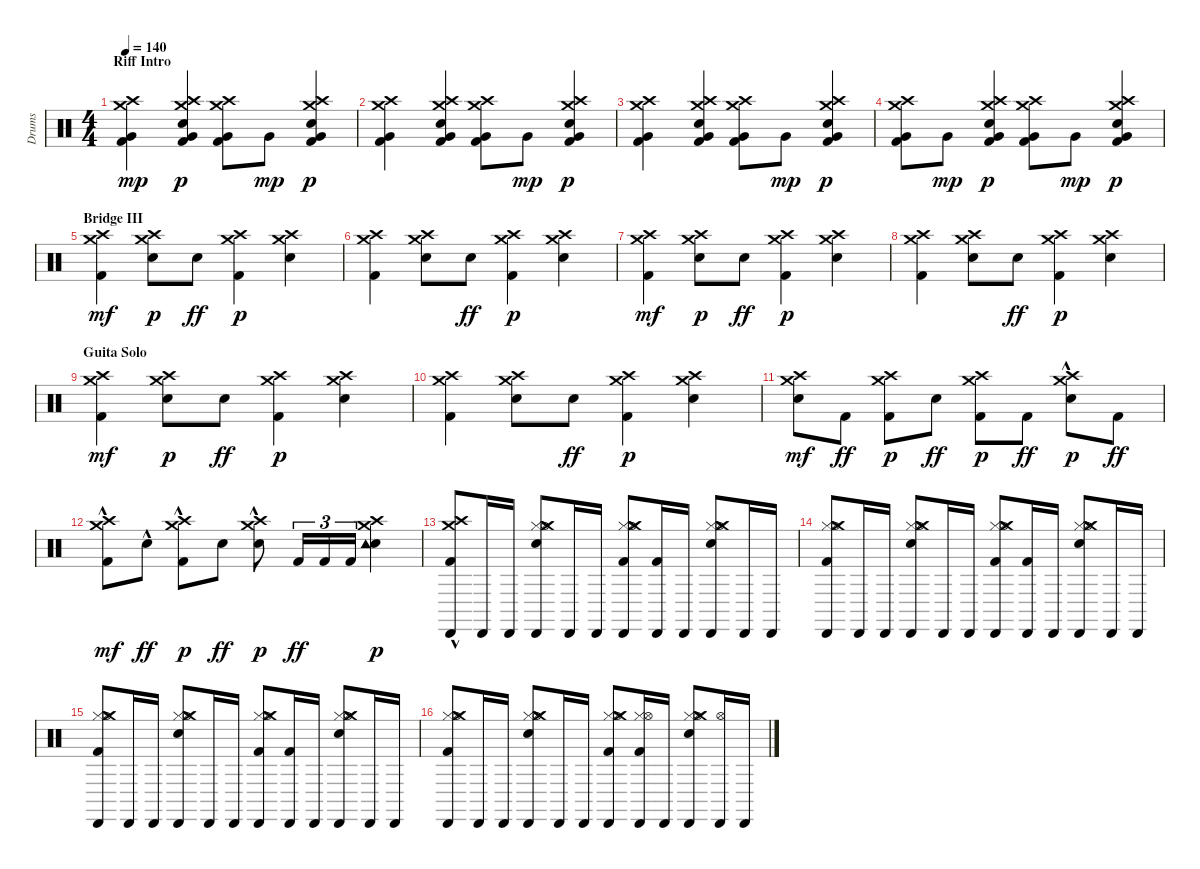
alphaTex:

\track ("Drums" "Drums") {instrument percussion}
\staff {score}
\articulation defaults
\ts (4 4)
\section ("" "Riff Intro")
\tempo 140
\clef neutral
\ks c
("Kick (hit) 2" "Very Low Tom (hit)" "Crash high (hit)" "Crash medium (hit)").4{dy mp} ("Kick (hit) 2" "Snare (hit) 2" "Very Low Tom (hit)" "Crash high (hit)" "Crash medium (hit)").4{dy p} ("Kick (hit) 2" "Very Low Tom (hit)" "Crash high (hit)" "Crash medium (hit)").8 "Very Low Tom (hit)".8{dy mp} ("Kick (hit) 2" "Snare (hit) 2" "Very Low Tom (hit)" "Crash high (hit)" "Crash medium (hit)").4{dy p} |
("Kick (hit) 2" "Very Low Tom (hit)" "Crash high (hit)" "Crash medium (hit)").4 ("Kick (hit) 2" "Snare (hit) 2" "Very Low Tom (hit)" "Crash high (hit)" "Crash medium (hit)").4 ("Kick (hit) 2" "Very Low Tom (hit)" "Crash high (hit)" "Crash medium (hit)").8 "Very Low Tom (hit)".8{dy mp} ("Kick (hit) 2" "Snare (hit) 2" "Very Low Tom (hit)" "Crash high (hit)" "Crash medium (hit)").4{dy p} |
("Kick (hit) 2" "Very Low Tom (hit)" "Crash high (hit)" "Crash medium (hit)").4 ("Kick (hit) 2" "Snare (hit) 2" "Very Low Tom (hit)" "Crash high (hit)" "Crash medium (hit)").4 ("Kick (hit) 2" "Very Low Tom (hit)" "Crash high (hit)" "Crash medium (hit)").8 "Very Low Tom (hit)".8{dy mp} ("Kick (hit) 2" "Snare (hit) 2" "Very Low Tom (hit)" "Crash high (hit)" "Crash medium (hit)").4{dy p} |
("Kick (hit) 2" "Very Low Tom (hit)" "Crash high (hit)" "Crash medium (hit)").8 "Very Low Tom (hit)".8{dy mp} ("Kick (hit) 2" "Snare (hit) 2" "Very Low Tom (hit)" "Crash high (hit)" "Crash medium (hit)").4{dy p} ("Kick (hit) 2" "Very Low Tom (hit)" "Crash high (hit)" "Crash medium (hit)").8 "Very Low Tom (hit)".8{dy mp} ("Kick (hit) 2" "Snare (hit) 2" "Very Low Tom (hit)" "Crash high (hit)" "Crash medium (hit)").4{dy p} |
\section ("" "Bridge III")
("Kick (hit) 2" "Crash high (hit)" "Crash medium (hit)").4{dy mf} ("Snare (hit) 2" "Crash high (hit)" "Crash medium (hit)").8{dy p} "Snare (hit) 2".8{dy ff} ("Kick (hit) 2" "Crash high (hit)" "Crash medium (hit)").4{dy p} ("Snare (hit) 2" "Crash high (hit)" "Crash medium (hit)").4 |
("Kick (hit) 2" "Crash high (hit)" "Crash medium (hit)").4 ("Snare (hit) 2" "Crash high (hit)" "Crash medium (hit)").8 "Snare (hit) 2".8{dy ff} ("Kick (hit) 2" "Crash high (hit)" "Crash medium (hit)").4{dy p} ("Snare (hit) 2" "Crash high (hit)" "Crash medium (hit)").4 |
("Kick (hit) 2" "Crash high (hit)" "Crash medium (hit)").4{dy mf} ("Snare (hit) 2" "Crash high (hit)" "Crash medium (hit)").8{dy p} "Snare (hit) 2".8{dy ff} ("Kick (hit) 2" "Crash high (hit)" "Crash medium (hit)").4{dy p} ("Snare (hit) 2" "Crash high (hit)" "Crash medium (hit)").4 |
("Kick (hit) 2" "Crash high (hit)" "Crash medium (hit)").4 ("Snare (hit) 2" "Crash high (hit)" "Crash medium (hit)").8 "Snare (hit) 2".8{dy ff} ("Kick (hit) 2" "Crash high (hit)" "Crash medium (hit)").4{dy p} ("Snare (hit) 2" "Crash high (hit)" "Crash medium (hit)").4 |
\section ("" "Guita Solo")
("Kick (hit) 2" "Crash high (hit)" "Crash medium (hit)").4{dy mf} ("Snare (hit) 2" "Crash high (hit)" "Crash medium (hit)").8{dy p} "Snare (hit) 2".8{dy ff} ("Kick (hit) 2" "Crash high (hit)" "Crash medium (hit)").4{dy p} ("Snare (hit) 2" "Crash high (hit)" "Crash medium (hit)").4 |
("Kick (hit) 2" "Crash high (hit)" "Crash medium (hit)").4 ("Snare (hit) 2" "Crash high (hit)" "Crash medium (hit)").8 "Snare (hit) 2".8{dy ff} ("Kick (hit) 2" "Crash high (hit)" "Crash medium (hit)").4{dy p} ("Snare (hit) 2" "Crash high (hit)" "Crash medium (hit)").4 |
("Crash high (hit)" "Snare (hit) 2" "Crash medium (hit)").8{dy mf} "Kick (hit) 2".8{dy ff} ("Crash high (hit)" "Kick (hit) 2" "Crash medium (hit)").8{dy p} "Snare (hit) 2".8{dy ff} ("Crash high (hit)" "Kick (hit) 2" "Crash medium (hit)").8{dy p} "Kick (hit) 2".8{dy ff} ("Crash high (hit)" "Snare (hit) 2"{hac} "Crash medium (hit)").8{dy p} "Kick (hit) 2".8{dy ff} |
("Crash high (hit)" "Kick (hit) 2"{hac} "Crash medium (hit)").8{dy mf} "Snare (hit) 2"{hac}.8{dy ff} ("Crash high (hit)" "Kick (hit) 2"{hac} "Crash medium (hit)").8{dy p} "Snare (hit) 2".8{dy ff} ("Crash high (hit)" "Snare (hit) 2"{hac} "Crash medium (hit)").8{dy p} "Kick (hit) 2".16{tu (3 2) dy ff} "Kick (hit) 2".16{tu (3 2)} "Kick (hit) 2".16{tu (3 2)} ("Crash high (hit)" "Snare (hit) 2" "Tambourine (hit)" "Crash medium (hit)").4{dy p} |
("Kick (hit) 2"{hac} "Crash high (hit)" "Crash medium (hit)" "Cabasa (hit)").8 "Cabasa (hit)".16 "Cabasa (hit)".16 ("Snare (hit) 2" "Hi-Hat (closed)" "Hi-Hat (open)" "Crash medium (hit)" "Cabasa (hit)").8 "Cabasa (hit)".16 "Cabasa (hit)".16 ("Kick (hit) 2" "Hi-Hat (closed)" "Hi-Hat (open)" "Crash medium (hit)" "Cabasa (hit)").8 ("Kick (hit) 2" "Cabasa (hit)").16 "Cabasa (hit)".16 ("Snare (hit) 2" "Hi-Hat (closed)" "Hi-Hat (open)" "Crash medium (hit)" "Cabasa (hit)").8 "Cabasa (hit)".16 "Cabasa (hit)".16 |
("Kick (hit) 2" "Hi-Hat (closed)" "Hi-Hat (open)" "Crash medium (hit)" "Cabasa (hit)").8 "Cabasa (hit)".16 "Cabasa (hit)".16 ("Snare (hit) 2" "Hi-Hat (closed)" "Hi-Hat (open)" "Crash medium (hit)" "Cabasa (hit)").8 "Cabasa (hit)".16 "Cabasa (hit)".16 ("Kick (hit) 2" "Hi-Hat (closed)" "Hi-Hat (open)" "Crash medium (hit)" "Cabasa (hit)").8 ("Kick (hit) 2" "Cabasa (hit)").16 "Cabasa (hit)".16 ("Snare (hit) 2" "Hi-Hat (closed)" "Hi-Hat (open)" "Crash medium (hit)" "Cabasa (hit)").8 "Cabasa (hit)".16 "Cabasa (hit)".16 |
("Kick (hit) 2" "Hi-Hat (closed)" "Hi-Hat (open)" "Crash medium (hit)" "Cabasa (hit)").8 "Cabasa (hit)".16 "Cabasa (hit)".16 ("Snare (hit) 2" "Hi-Hat (closed)" "Hi-Hat (open)" "Crash medium (hit)" "Cabasa (hit)").8 "Cabasa (hit)".16 "Cabasa (hit)".16 ("Kick (hit) 2" "Hi-Hat (closed)" "Hi-Hat (open)" "Crash medium (hit)" "Cabasa (hit)").8 ("Kick (hit) 2" "Cabasa (hit)").16 "Cabasa (hit)".16 ("Snare (hit) 2" "Hi-Hat (closed)" "Hi-Hat (open)" "Crash medium (hit)" "Cabasa (hit)").8 "Cabasa (hit)".16 "Cabasa (hit)".16 |
("Kick (hit) 2" "Hi-Hat (closed)" "Hi-Hat (open)" "Crash medium (hit)" "Cabasa (hit)").8 "Cabasa (hit)".16 "Cabasa (hit)".16 ("Snare (hit) 2" "Hi-Hat (closed)" "Hi-Hat (open)" "Crash medium (hit)" "Cabasa (hit)").8 "Cabasa (hit)".16 "Cabasa (hit)".16 ("Kick (hit) 2" "Hi-Hat (closed)" "Hi-Hat (open)" "Crash medium (hit)" "Cabasa (hit)").8 ("Kick (hit) 2" "Hi-Hat (closed)" "Hi-Hat (open)" "Cabasa (hit)").16 "Cabasa (hit)".16 ("Snare (hit) 2" "Hi-Hat (closed)" "Hi-Hat (open)" "Crash medium (hit)" "Cabasa (hit)").8 ("Hi-Hat (open)" "Cabasa (hit)").16 "Cabasa (hit)".16
